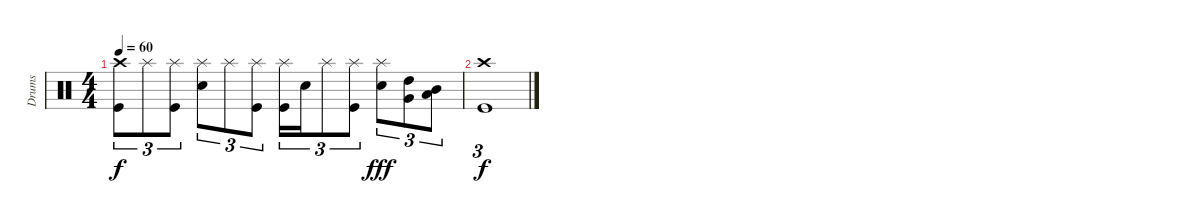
\track ("Drums" "Drums") {instrument percussion}
\staff {score}
\articulation defaults
\ts (4 4)
\tempo 60
\clef neutral
\ks c
("Crash high (hit)" "Kick (hit)").8{tu (3 2) dy f} "Splash (hit)".8{tu (3 2)} ("Splash (hit)" "Kick (hit)").8{tu (3 2)} ("Splash (hit)" "Electric Snare (hit)").8{tu (3 2)} "Splash (hit)".8{tu (3 2)} ("Splash (hit)" "Kick (hit)").8{tu (3 2)} ("Splash (hit)" "Kick (hit)").16{tu (3 2)} "Electric Snare (hit)".16{tu (3 2)} "Splash (hit)".8{tu (3 2)} ("Splash (hit)" "Kick (hit)").8{tu (3 2)} ("Splash (hit)" "Electric Snare (hit)").8{tu (3 2) dy fff} ("High Tom (hit)" "Very Low Tom (hit)").8{tu (3 2)} ("Mid Tom (hit)" "Low Floor Tom (hit)").8{tu (3 2)} |
("Crash high (hit)" "Kick (hit)").1{tu (3 2) dy f}
